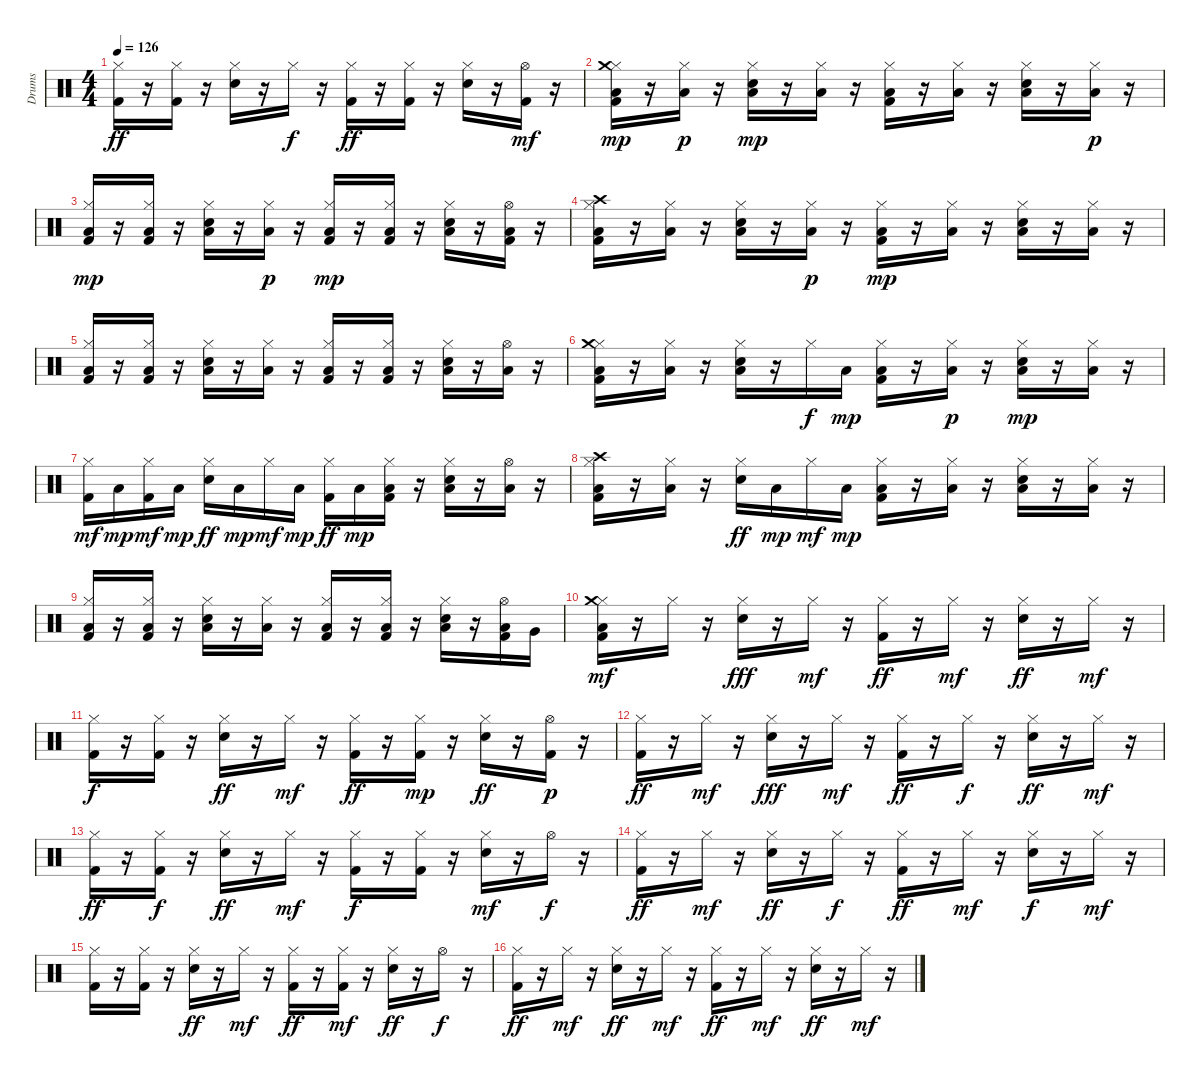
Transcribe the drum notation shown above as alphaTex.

\track ("Drums" "Drums") {instrument percussion}
\staff {score}
\articulation defaults
\ts (4 4)
\tempo 126
\clef neutral
\ks c
("Kick (hit) 2" "Hi-Hat (closed)").16{dy ff} r.16 ("Hi-Hat (closed)" "Kick (hit) 2").16 r.16 ("Hi-Hat (closed)" "Snare (hit) 2").16 r.16 "Hi-Hat (closed)".16{dy f} r.16 ("Kick (hit) 2" "Hi-Hat (closed)").16{dy ff} r.16 ("Hi-Hat (closed)" "Kick (hit) 2").16 r.16 ("Hi-Hat (closed)" "Snare (hit) 2").16 r.16 ("Hi-Hat (open)" "Kick (hit) 2").16{dy mf} r.16 |
("Kick (hit) 2" "Hi-Hat (closed)" "Low Floor Tom (hit)" "Crash medium (hit)").16{dy mp} r.16 ("Hi-Hat (closed)" "Low Floor Tom (hit)").16{dy p} r.16 ("Hi-Hat (closed)" "Snare (hit) 2" "Low Floor Tom (hit)").16{dy mp} r.16 ("Hi-Hat (closed)" "Low Floor Tom (hit)").16 r.16 ("Kick (hit) 2" "Hi-Hat (closed)" "Low Floor Tom (hit)").16 r.16 ("Hi-Hat (closed)" "Low Floor Tom (hit)").16 r.16 ("Hi-Hat (closed)" "Snare (hit) 2" "Low Floor Tom (hit)").16 r.16 ("Hi-Hat (closed)" "Low Floor Tom (hit)").16{dy p} r.16 |
("Kick (hit) 2" "Hi-Hat (closed)" "Low Floor Tom (hit)").16{dy mp} r.16 ("Hi-Hat (closed)" "Kick (hit) 2" "Low Floor Tom (hit)").16 r.16 ("Hi-Hat (closed)" "Snare (hit) 2" "Low Floor Tom (hit)").16 r.16 ("Hi-Hat (closed)" "Low Floor Tom (hit)").16{dy p} r.16 ("Hi-Hat (closed)" "Kick (hit) 2" "Low Floor Tom (hit)").16{dy mp} r.16 ("Kick (hit) 2" "Hi-Hat (closed)" "Low Floor Tom (hit)").16 r.16 ("Hi-Hat (closed)" "Snare (hit) 2" "Low Floor Tom (hit)").16 r.16 ("Hi-Hat (open)" "Kick (hit) 2" "Low Floor Tom (hit)").16 r.16 |
("Hi-Hat (closed)" "Kick (hit) 2" "Low Floor Tom (hit)" "Crash high (hit)").16 r.16 ("Hi-Hat (closed)" "Low Floor Tom (hit)").16 r.16 ("Hi-Hat (closed)" "Snare (hit) 2" "Low Floor Tom (hit)").16 r.16 ("Hi-Hat (closed)" "Low Floor Tom (hit)").16{dy p} r.16 ("Kick (hit) 2" "Hi-Hat (closed)" "Low Floor Tom (hit)").16{dy mp} r.16 ("Hi-Hat (closed)" "Low Floor Tom (hit)").16 r.16 ("Snare (hit) 2" "Hi-Hat (closed)" "Low Floor Tom (hit)").16 r.16 ("Hi-Hat (closed)" "Low Floor Tom (hit)").16 r.16 |
("Hi-Hat (closed)" "Kick (hit) 2" "Low Floor Tom (hit)").16 r.16 ("Kick (hit) 2" "Hi-Hat (closed)" "Low Floor Tom (hit)").16 r.16 ("Hi-Hat (closed)" "Snare (hit) 2" "Low Floor Tom (hit)").16 r.16 ("Hi-Hat (closed)" "Low Floor Tom (hit)").16 r.16 ("Kick (hit) 2" "Hi-Hat (closed)" "Low Floor Tom (hit)").16 r.16 ("Hi-Hat (closed)" "Kick (hit) 2" "Low Floor Tom (hit)").16 r.16 ("Snare (hit) 2" "Hi-Hat (closed)" "Low Floor Tom (hit)").16 r.16 ("Hi-Hat (open)" "Low Floor Tom (hit)").16 r.16 |
("Hi-Hat (closed)" "Kick (hit) 2" "Low Floor Tom (hit)" "Crash medium (hit)").16 r.16 ("Hi-Hat (closed)" "Low Floor Tom (hit)").16 r.16 ("Snare (hit) 2" "Hi-Hat (closed)" "Low Floor Tom (hit)").16 r.16 "Hi-Hat (closed)".16{dy f} "Low Floor Tom (hit)".16{dy mp} ("Kick (hit) 2" "Hi-Hat (closed)" "Low Floor Tom (hit)").16 r.16 ("Hi-Hat (closed)" "Low Floor Tom (hit)").16{dy p} r.16 ("Snare (hit) 2" "Hi-Hat (closed)" "Low Floor Tom (hit)").16{dy mp} r.16 ("Hi-Hat (closed)" "Low Floor Tom (hit)").16 r.16 |
("Kick (hit) 2" "Hi-Hat (closed)").16{dy mf} "Low Floor Tom (hit)".16{dy mp} ("Hi-Hat (closed)" "Kick (hit) 2").16{dy mf} "Low Floor Tom (hit)".16{dy mp} ("Hi-Hat (closed)" "Snare (hit) 2").16{dy ff} "Low Floor Tom (hit)".16{dy mp} "Hi-Hat (closed)".16{dy mf} "Low Floor Tom (hit)".16{dy mp} ("Hi-Hat (closed)" "Kick (hit) 2").16{dy ff} "Low Floor Tom (hit)".16{dy mp} ("Hi-Hat (closed)" "Kick (hit) 2" "Low Floor Tom (hit)").16 r.16 ("Hi-Hat (closed)" "Snare (hit) 2" "Low Floor Tom (hit)").16 r.16 ("Hi-Hat (open)" "Low Floor Tom (hit)").16 r.16 |
("Hi-Hat (closed)" "Kick (hit) 2" "Low Floor Tom (hit)" "Crash high (hit)").16 r.16 ("Hi-Hat (closed)" "Low Floor Tom (hit)").16 r.16 ("Hi-Hat (closed)" "Snare (hit) 2").16{dy ff} "Low Floor Tom (hit)".16{dy mp} "Hi-Hat (closed)".16{dy mf} "Low Floor Tom (hit)".16{dy mp} ("Kick (hit) 2" "Hi-Hat (closed)" "Low Floor Tom (hit)").16 r.16 ("Hi-Hat (closed)" "Low Floor Tom (hit)").16 r.16 ("Hi-Hat (closed)" "Snare (hit) 2" "Low Floor Tom (hit)").16 r.16 ("Hi-Hat (closed)" "Low Floor Tom (hit)").16 r.16 |
("Kick (hit) 2" "Hi-Hat (closed)" "Low Floor Tom (hit)").16 r.16 ("Hi-Hat (closed)" "Kick (hit) 2" "Low Floor Tom (hit)").16 r.16 ("Hi-Hat (closed)" "Snare (hit) 2" "Low Floor Tom (hit)").16 r.16 ("Hi-Hat (closed)" "Low Floor Tom (hit)").16 r.16 ("Kick (hit) 2" "Hi-Hat (closed)" "Low Floor Tom (hit)").16 r.16 ("Hi-Hat (closed)" "Kick (hit) 2" "Low Floor Tom (hit)").16 r.16 ("Hi-Hat (closed)" "Snare (hit) 2" "Low Floor Tom (hit)").16 r.16 ("Hi-Hat (open)" "Kick (hit) 2" "Low Floor Tom (hit)").16 "Very Low Tom (hit)".16 |
("Kick (hit) 2" "Hi-Hat (closed)" "Low Floor Tom (hit)" "Crash medium (hit)").16{dy mf} r.16 "Hi-Hat (closed)".16 r.16 ("Hi-Hat (closed)" "Snare (hit) 2").16{dy fff} r.16 "Hi-Hat (closed)".16{dy mf} r.16 ("Kick (hit) 2" "Hi-Hat (closed)").16{dy ff} r.16 "Hi-Hat (closed)".16{dy mf} r.16 ("Hi-Hat (closed)" "Snare (hit) 2").16{dy ff} r.16 "Hi-Hat (closed)".16{dy mf} r.16 |
("Kick (hit) 2" "Hi-Hat (closed)").16{dy f} r.16 ("Hi-Hat (closed)" "Kick (hit) 2").16 r.16 ("Hi-Hat (closed)" "Snare (hit) 2").16{dy ff} r.16 "Hi-Hat (closed)".16{dy mf} r.16 ("Hi-Hat (closed)" "Kick (hit) 2").16{dy ff} r.16 ("Kick (hit) 2" "Hi-Hat (closed)").16{dy mp} r.16 ("Hi-Hat (closed)" "Snare (hit) 2").16{dy ff} r.16 ("Hi-Hat (open)" "Kick (hit) 2").16{dy p} r.16 |
("Hi-Hat (closed)" "Kick (hit) 2").16{dy ff} r.16 "Hi-Hat (closed)".16{dy mf} r.16 ("Hi-Hat (closed)" "Snare (hit) 2").16{dy fff} r.16 "Hi-Hat (closed)".16{dy mf} r.16 ("Kick (hit) 2" "Hi-Hat (closed)").16{dy ff} r.16 "Hi-Hat (closed)".16{dy f} r.16 ("Snare (hit) 2" "Hi-Hat (closed)").16{dy ff} r.16 "Hi-Hat (closed)".16{dy mf} r.16 |
("Hi-Hat (closed)" "Kick (hit) 2").16{dy ff} r.16 ("Kick (hit) 2" "Hi-Hat (closed)").16{dy f} r.16 ("Hi-Hat (closed)" "Snare (hit) 2").16{dy ff} r.16 "Hi-Hat (closed)".16{dy mf} r.16 ("Kick (hit) 2" "Hi-Hat (closed)").16{dy f} r.16 ("Hi-Hat (closed)" "Kick (hit) 2").16 r.16 ("Snare (hit) 2" "Hi-Hat (closed)").16{dy mf} r.16 "Hi-Hat (open)".16{dy f} r.16 |
("Hi-Hat (closed)" "Kick (hit) 2").16{dy ff} r.16 "Hi-Hat (closed)".16{dy mf} r.16 ("Snare (hit) 2" "Hi-Hat (closed)").16{dy ff} r.16 "Hi-Hat (closed)".16{dy f} r.16 ("Kick (hit) 2" "Hi-Hat (closed)").16{dy ff} r.16 "Hi-Hat (closed)".16{dy mf} r.16 ("Snare (hit) 2" "Hi-Hat (closed)").16{dy f} r.16 "Hi-Hat (closed)".16{dy mf} r.16 |
("Kick (hit) 2" "Hi-Hat (closed)").16 r.16 ("Hi-Hat (closed)" "Kick (hit) 2").16 r.16 ("Hi-Hat (closed)" "Snare (hit) 2").16{dy ff} r.16 "Hi-Hat (closed)".16{dy mf} r.16 ("Hi-Hat (closed)" "Kick (hit) 2").16{dy ff} r.16 ("Hi-Hat (closed)" "Kick (hit) 2").16{dy mf} r.16 ("Hi-Hat (closed)" "Snare (hit) 2").16{dy ff} r.16 "Hi-Hat (open)".16{dy f} r.16 |
("Hi-Hat (closed)" "Kick (hit) 2").16{dy ff} r.16 "Hi-Hat (closed)".16{dy mf} r.16 ("Hi-Hat (closed)" "Snare (hit) 2").16{dy ff} r.16 "Hi-Hat (closed)".16{dy mf} r.16 ("Kick (hit) 2" "Hi-Hat (closed)").16{dy ff} r.16 "Hi-Hat (closed)".16{dy mf} r.16 ("Hi-Hat (closed)" "Snare (hit) 2").16{dy ff} r.16 "Hi-Hat (closed)".16{dy mf} r.16
